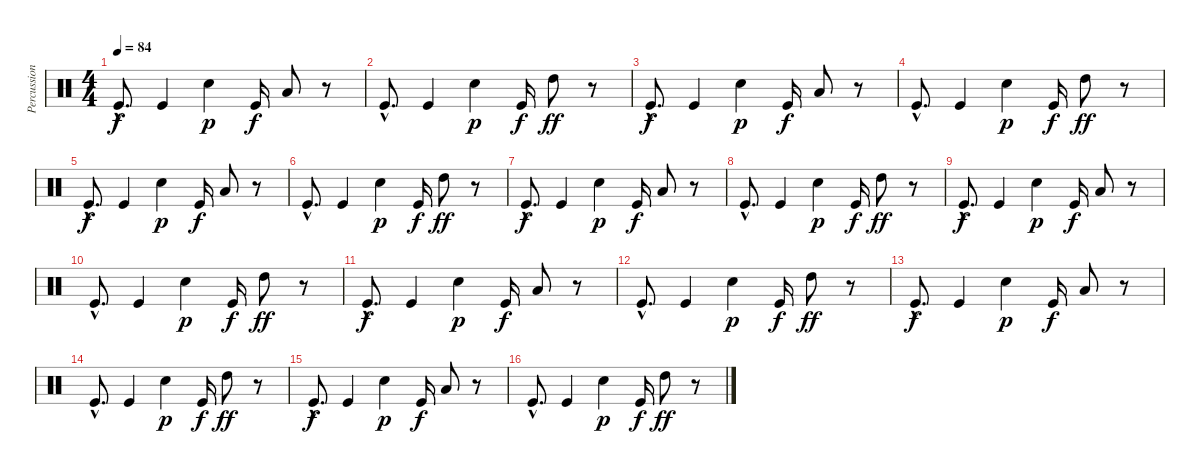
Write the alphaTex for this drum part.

\track ("Percussions" "Percussion") {instrument percussion}
\staff {score}
\articulation defaults
\ts (4 4)
\tempo 84
\clef neutral
\ks c "Kick (hit)"{hac}.8{d dy f} "Kick (hit)".4 "Snare (hit) 2".4{dy p} "Kick (hit)".16{dy f} "Low Tom (hit)".8
r.8 |
"Kick (hit)"{hac}.8{d} "Kick (hit)".4 "Snare (hit) 2".4{dy p} "Kick (hit)".16{dy f} "High Tom (hit)".8{dy ff} r.8 |
"Kick (hit)"{hac}.8{d dy f} "Kick (hit)".4 "Snare (hit) 2".4{dy p} "Kick (hit)".16{dy f} "Low Tom (hit)".8 r.8 |
"Kick (hit)"{hac}.8{d} "Kick (hit)".4 "Snare (hit) 2".4{dy p} "Kick (hit)".16{dy f} "High Tom (hit)".8{dy ff} r.8 |
"Kick (hit)"{hac}.8{d dy f} "Kick (hit)".4 "Snare (hit) 2".4{dy p} "Kick (hit)".16{dy f} "Low Tom (hit)".8 r.8 |
"Kick (hit)"{hac}.8{d} "Kick (hit)".4 "Snare (hit) 2".4{dy p} "Kick (hit)".16{dy f} "High Tom (hit)".8{dy ff} r.8 |
"Kick (hit)"{hac}.8{d dy f} "Kick (hit)".4 "Snare (hit) 2".4{dy p} "Kick (hit)".16{dy f} "Low Tom (hit)".8 r.8 |
"Kick (hit)"{hac}.8{d} "Kick (hit)".4 "Snare (hit) 2".4{dy p} "Kick (hit)".16{dy f} "High Tom (hit)".8{dy ff} r.8 |
"Kick (hit)"{hac}.8{d dy f} "Kick (hit)".4 "Snare (hit) 2".4{dy p} "Kick (hit)".16{dy f} "Low Tom (hit)".8 r.8 |
"Kick (hit)"{hac}.8{d} "Kick (hit)".4 "Snare (hit) 2".4{dy p} "Kick (hit)".16{dy f} "High Tom (hit)".8{dy ff} r.8 |
"Kick (hit)"{hac}.8{d dy f} "Kick (hit)".4 "Snare (hit) 2".4{dy p} "Kick (hit)".16{dy f} "Low Tom (hit)".8 r.8 |
"Kick (hit)"{hac}.8{d} "Kick (hit)".4 "Snare (hit) 2".4{dy p} "Kick (hit)".16{dy f} "High Tom (hit)".8{dy ff} r.8 |
"Kick (hit)"{hac}.8{d dy f} "Kick (hit)".4 "Snare (hit) 2".4{dy p} "Kick (hit)".16{dy f} "Low Tom (hit)".8 r.8 |
"Kick (hit)"{hac}.8{d} "Kick (hit)".4 "Snare (hit) 2".4{dy p} "Kick (hit)".16{dy f} "High Tom (hit)".8{dy ff} r.8 |
"Kick (hit)"{hac}.8{d dy f} "Kick (hit)".4 "Snare (hit) 2".4{dy p} "Kick (hit)".16{dy f} "Low Tom (hit)".8 r.8 |
"Kick (hit)"{hac}.8{d} "Kick (hit)".4 "Snare (hit) 2".4{dy p} "Kick (hit)".16{dy f} "High Tom (hit)".8{dy ff} r.8
